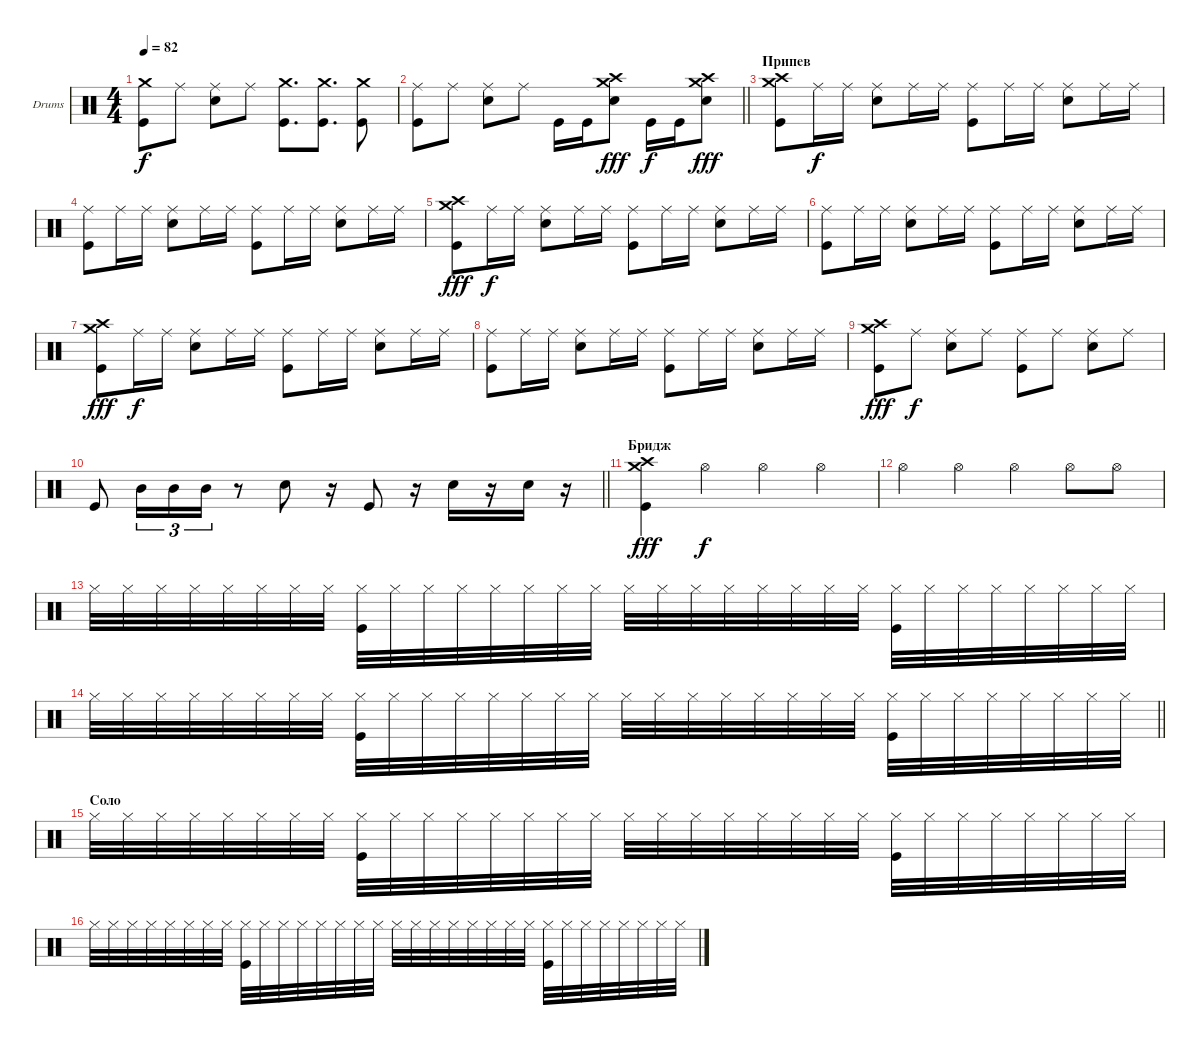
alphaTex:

\bracketExtendMode groupsimilarinstruments
\firstSystemTrackNameOrientation horizontal
\otherSystemsTrackNameOrientation horizontal
\track ("Александр Манякин" "Drums") {instrument percussion}
\staff {score}
\articulation defaults
\ts (4 4)
\tempo 82
\clef neutral
\ks c
("Kick (hit)" "Crash medium (hit)").8{dy f} "Ride (middle)".8 ("Snare (hit) 2" "Ride (middle)").8 "Ride (middle)".8 ("Kick (hit)" "Crash medium (hit)").8{d} ("Kick (hit)" "Crash medium (hit)").8{d} ("Kick (hit)" "Crash medium (hit)").8 |
\barLineRight lightlight
("Kick (hit)" "Ride (middle)").8 "Ride (middle)".8 ("Snare (hit) 2" "Ride (middle)").8 "Ride (middle)".8 "Kick (hit)".16 "Kick (hit)".16 ("Snare (hit) 2" "Crash medium (hit)" "Crash high (hit)").8{dy fff} "Kick (hit)".16{dy f} "Kick (hit)".16 ("Snare (hit) 2" "Crash medium (hit)" "Crash high (hit)").8{dy fff} |
\section ("" "Припев")
("Kick (hit)" "Crash medium (hit)" "Crash high (hit)").8 "Ride (middle)".16{dy f} "Ride (middle)".16 ("Snare (hit) 2" "Ride (middle)").8 "Ride (middle)".16 "Ride (middle)".16 ("Kick (hit)" "Ride (middle)").8 "Ride (middle)".16 "Ride (middle)".16 ("Snare (hit) 2" "Ride (middle)").8 "Ride (middle)".16 "Ride (middle)".16 |
("Kick (hit)" "Ride (middle)").8 "Ride (middle)".16 "Ride (middle)".16 ("Snare (hit) 2" "Ride (middle)").8 "Ride (middle)".16 "Ride (middle)".16 ("Kick (hit)" "Ride (middle)").8 "Ride (middle)".16 "Ride (middle)".16 ("Snare (hit) 2" "Ride (middle)").8 "Ride (middle)".16 "Ride (middle)".16 |
("Kick (hit)" "Crash medium (hit)" "Crash high (hit)").8{dy fff} "Ride (middle)".16{dy f} "Ride (middle)".16 ("Snare (hit) 2" "Ride (middle)").8 "Ride (middle)".16 "Ride (middle)".16 ("Kick (hit)" "Ride (middle)").8 "Ride (middle)".16 "Ride (middle)".16 ("Snare (hit) 2" "Ride (middle)").8 "Ride (middle)".16 "Ride (middle)".16 |
("Kick (hit)" "Ride (middle)").8 "Ride (middle)".16 "Ride (middle)".16 ("Snare (hit) 2" "Ride (middle)").8 "Ride (middle)".16 "Ride (middle)".16 ("Kick (hit)" "Ride (middle)").8 "Ride (middle)".16 "Ride (middle)".16 ("Snare (hit) 2" "Ride (middle)").8 "Ride (middle)".16 "Ride (middle)".16 |
("Kick (hit)" "Crash medium (hit)" "Crash high (hit)").8{dy fff} "Ride (middle)".16{dy f} "Ride (middle)".16 ("Snare (hit) 2" "Ride (middle)").8 "Ride (middle)".16 "Ride (middle)".16 ("Kick (hit)" "Ride (middle)").8 "Ride (middle)".16 "Ride (middle)".16 ("Snare (hit) 2" "Ride (middle)").8 "Ride (middle)".16 "Ride (middle)".16 |
("Kick (hit)" "Ride (middle)").8 "Ride (middle)".16 "Ride (middle)".16 ("Snare (hit) 2" "Ride (middle)").8 "Ride (middle)".16 "Ride (middle)".16 ("Kick (hit)" "Ride (middle)").8 "Ride (middle)".16 "Ride (middle)".16 ("Snare (hit) 2" "Ride (middle)").8 "Ride (middle)".16 "Ride (middle)".16 |
("Kick (hit)" "Crash medium (hit)" "Crash high (hit)").8{dy fff} "Ride (middle)".8{dy f} ("Snare (hit) 2" "Ride (middle)").8 "Ride (middle)".8 ("Kick (hit)" "Ride (middle)").8 "Ride (middle)".8 ("Snare (hit) 2" "Ride (middle)").8 "Ride (middle)".8 |
\barLineRight lightlight "Kick (hit)".8 "Mid Tom (hit)".16{tu (3 2)} "Mid Tom (hit)".16{tu (3 2)} "Mid Tom (hit)".16{tu (3 2)}
r.8 "Snare (hit) 2".8 r.16 "Kick (hit)".8 r.16 "Snare (hit) 2".16 r.16 "Snare (hit) 2".16 r.16 |
\section ("" "Бридж")
("Kick (hit)" "Crash medium (hit)" "Crash high (hit)").4{dy fff} "Hi-Hat (open)".4{dy f} "Hi-Hat (open)".4 "Hi-Hat (open)".4 |
"Hi-Hat (open)".4 "Hi-Hat (open)".4 "Hi-Hat (open)".4 "Hi-Hat (open)".8 "Hi-Hat (open)".8 |
"Hi-Hat (closed)".32 "Hi-Hat (closed)".32 "Hi-Hat (closed)".32 "Hi-Hat (closed)".32 "Hi-Hat (closed)".32 "Hi-Hat (closed)".32 "Hi-Hat (closed)".32 "Hi-Hat (closed)".32 ("Hi-Hat (closed)" "Kick (hit)").32 "Hi-Hat (closed)".32 "Hi-Hat (closed)".32 "Hi-Hat (closed)".32 "Hi-Hat (closed)".32 "Hi-Hat (closed)".32 "Hi-Hat (closed)".32 "Hi-Hat (closed)".32 "Hi-Hat (closed)".32 "Hi-Hat (closed)".32 "Hi-Hat (closed)".32 "Hi-Hat (closed)".32 "Hi-Hat (closed)".32 "Hi-Hat (closed)".32 "Hi-Hat (closed)".32 "Hi-Hat (closed)".32 ("Hi-Hat (closed)" "Kick (hit)").32 "Hi-Hat (closed)".32 "Hi-Hat (closed)".32 "Hi-Hat (closed)".32 "Hi-Hat (closed)".32 "Hi-Hat (closed)".32 "Hi-Hat (closed)".32 "Hi-Hat (closed)".32 |
\barLineRight lightlight "Hi-Hat (closed)".32 "Hi-Hat (closed)".32 "Hi-Hat (closed)".32 "Hi-Hat (closed)".32 "Hi-Hat (closed)".32 "Hi-Hat (closed)".32 "Hi-Hat (closed)".32 "Hi-Hat (closed)".32
("Hi-Hat (closed)" "Kick (hit)").32 "Hi-Hat (closed)".32 "Hi-Hat (closed)".32 "Hi-Hat (closed)".32 "Hi-Hat (closed)".32 "Hi-Hat (closed)".32 "Hi-Hat (closed)".32 "Hi-Hat (closed)".32 "Hi-Hat (closed)".32 "Hi-Hat (closed)".32 "Hi-Hat (closed)".32 "Hi-Hat (closed)".32 "Hi-Hat (closed)".32 "Hi-Hat (closed)".32 "Hi-Hat (closed)".32 "Hi-Hat (closed)".32 ("Hi-Hat (closed)" "Kick (hit)").32 "Hi-Hat (closed)".32 "Hi-Hat (closed)".32 "Hi-Hat (closed)".32 "Hi-Hat (closed)".32 "Hi-Hat (closed)".32 "Hi-Hat (closed)".32 "Hi-Hat (closed)".32 |
\section ("" "Соло")
"Hi-Hat (closed)".32 "Hi-Hat (closed)".32 "Hi-Hat (closed)".32 "Hi-Hat (closed)".32 "Hi-Hat (closed)".32 "Hi-Hat (closed)".32 "Hi-Hat (closed)".32 "Hi-Hat (closed)".32 ("Hi-Hat (closed)" "Kick (hit)").32 "Hi-Hat (closed)".32 "Hi-Hat (closed)".32 "Hi-Hat (closed)".32 "Hi-Hat (closed)".32 "Hi-Hat (closed)".32 "Hi-Hat (closed)".32 "Hi-Hat (closed)".32 "Hi-Hat (closed)".32 "Hi-Hat (closed)".32 "Hi-Hat (closed)".32 "Hi-Hat (closed)".32 "Hi-Hat (closed)".32 "Hi-Hat (closed)".32 "Hi-Hat (closed)".32 "Hi-Hat (closed)".32 ("Hi-Hat (closed)" "Kick (hit)").32 "Hi-Hat (closed)".32 "Hi-Hat (closed)".32 "Hi-Hat (closed)".32 "Hi-Hat (closed)".32 "Hi-Hat (closed)".32 "Hi-Hat (closed)".32 "Hi-Hat (closed)".32 |
"Hi-Hat (closed)".32 "Hi-Hat (closed)".32 "Hi-Hat (closed)".32 "Hi-Hat (closed)".32 "Hi-Hat (closed)".32 "Hi-Hat (closed)".32 "Hi-Hat (closed)".32 "Hi-Hat (closed)".32 ("Hi-Hat (closed)" "Kick (hit)").32 "Hi-Hat (closed)".32 "Hi-Hat (closed)".32 "Hi-Hat (closed)".32 "Hi-Hat (closed)".32 "Hi-Hat (closed)".32 "Hi-Hat (closed)".32 "Hi-Hat (closed)".32 "Hi-Hat (closed)".32 "Hi-Hat (closed)".32 "Hi-Hat (closed)".32 "Hi-Hat (closed)".32 "Hi-Hat (closed)".32 "Hi-Hat (closed)".32 "Hi-Hat (closed)".32 "Hi-Hat (closed)".32 ("Hi-Hat (closed)" "Kick (hit)").32 "Hi-Hat (closed)".32 "Hi-Hat (closed)".32 "Hi-Hat (closed)".32 "Hi-Hat (closed)".32 "Hi-Hat (closed)".32 "Hi-Hat (closed)".32 "Hi-Hat (closed)".32
